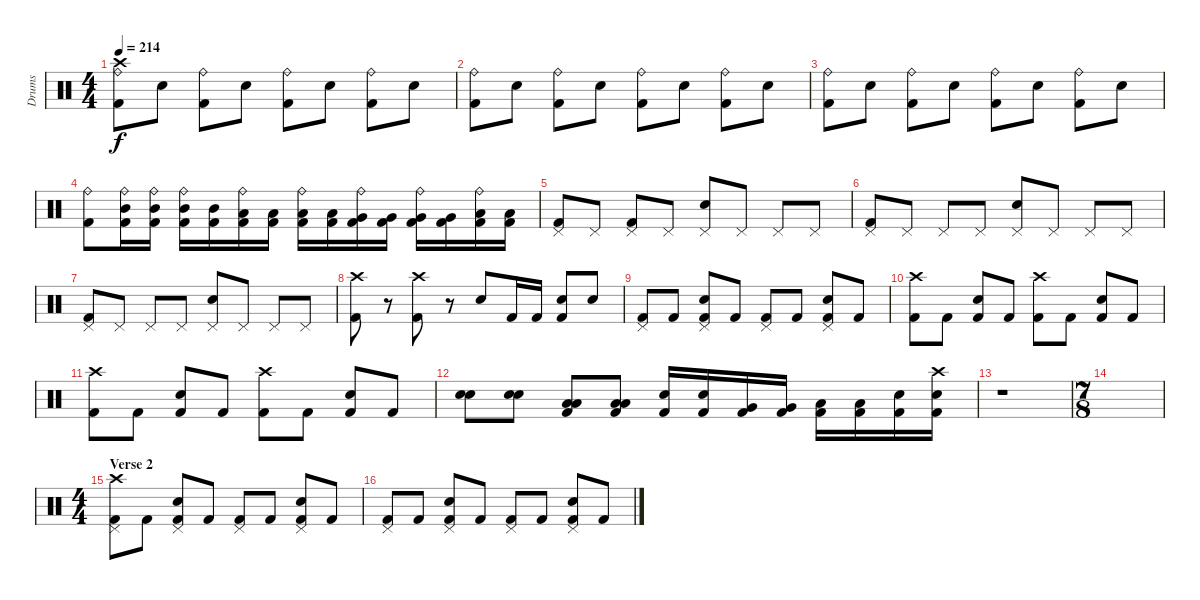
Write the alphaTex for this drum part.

\track ("Drums" "Drums") {instrument percussion}
\staff {score}
\articulation defaults
\ts (4 4)
\tempo 214
\clef neutral
\ks c
("Ride (bell)" "Crash high (hit)" "Kick (hit) 2").8{dy f} "Electric Snare (hit)".8 ("Ride (bell)" "Kick (hit) 2").8 "Electric Snare (hit)".8 ("Ride (bell)" "Kick (hit) 2").8 "Electric Snare (hit)".8 ("Ride (bell)" "Kick (hit) 2").8 "Electric Snare (hit)".8 |
("Ride (bell)" "Kick (hit) 2").8 "Electric Snare (hit)".8 ("Ride (bell)" "Kick (hit) 2").8 "Electric Snare (hit)".8 ("Ride (bell)" "Kick (hit) 2").8 "Electric Snare (hit)".8 ("Ride (bell)" "Kick (hit) 2").8 "Electric Snare (hit)".8 |
("Ride (bell)" "Kick (hit) 2").8 "Electric Snare (hit)".8 ("Ride (bell)" "Kick (hit) 2").8 "Electric Snare (hit)".8 ("Ride (bell)" "Kick (hit) 2").8 "Electric Snare (hit)".8 ("Ride (bell)" "Kick (hit) 2").8 "Electric Snare (hit)".8 |
("Ride (bell)" "Kick (hit) 2").8 ("Ride (bell)" "Mid Tom (hit)" "Kick (hit) 2").16 ("Ride (bell)" "Mid Tom (hit)" "Kick (hit) 2").16 ("Ride (bell)" "Mid Tom (hit)" "Kick (hit) 2").16 ("Mid Tom (hit)" "Kick (hit) 2").16 ("Ride (bell)" "Low Tom (hit)" "Kick (hit) 2").16 ("Low Tom (hit)" "Kick (hit) 2").16 ("Ride (bell)" "Low Tom (hit)" "Kick (hit) 2").16 ("Low Tom (hit)" "Kick (hit) 2").16 ("Ride (bell)" "Very Low Tom (hit)" "Kick (hit) 2").16 ("Very Low Tom (hit)" "Kick (hit) 2").16 ("Ride (bell)" "Very Low Tom (hit)" "Kick (hit) 2").16 ("Very Low Tom (hit)" "Kick (hit) 2").16 ("Ride (bell)" "Low Floor Tom (hit)" "Kick (hit) 2").16 ("Low Floor Tom (hit)" "Kick (hit) 2").16 |
("Pedal Hi-Hat (hit)" "Kick (hit) 2").8 "Pedal Hi-Hat (hit)".8 ("Pedal Hi-Hat (hit)" "Kick (hit) 2").8 "Pedal Hi-Hat (hit)".8 ("Pedal Hi-Hat (hit)" "Electric Snare (hit)").8 "Pedal Hi-Hat (hit)".8 "Pedal Hi-Hat (hit)".8 "Pedal Hi-Hat (hit)".8 |
("Pedal Hi-Hat (hit)" "Kick (hit) 2").8 "Pedal Hi-Hat (hit)".8 "Pedal Hi-Hat (hit)".8 "Pedal Hi-Hat (hit)".8 ("Pedal Hi-Hat (hit)" "Electric Snare (hit)").8 "Pedal Hi-Hat (hit)".8 "Pedal Hi-Hat (hit)".8 "Pedal Hi-Hat (hit)".8 |
("Pedal Hi-Hat (hit)" "Kick (hit) 2").8 "Pedal Hi-Hat (hit)".8 "Pedal Hi-Hat (hit)".8 "Pedal Hi-Hat (hit)".8 ("Pedal Hi-Hat (hit)" "Electric Snare (hit)").8 "Pedal Hi-Hat (hit)".8 "Pedal Hi-Hat (hit)".8 "Pedal Hi-Hat (hit)".8 |
("Crash high (hit)" "Kick (hit) 2").8 r.8 ("Crash high (hit)" "Kick (hit) 2").8 r.8 "Electric Snare (hit)".8 "Kick (hit) 2".16 "Kick (hit) 2".16 ("Electric Snare (hit)" "Kick (hit) 2").8 "Electric Snare (hit)".8 |
("Pedal Hi-Hat (hit)" "Kick (hit) 2").8 "Kick (hit) 2".8 ("Pedal Hi-Hat (hit)" "Electric Snare (hit)" "Kick (hit) 2").8 "Kick (hit) 2".8 ("Pedal Hi-Hat (hit)" "Kick (hit) 2").8 "Kick (hit) 2".8 ("Pedal Hi-Hat (hit)" "Electric Snare (hit)" "Kick (hit) 2").8 "Kick (hit) 2".8 |
("Crash high (hit)" "Kick (hit) 2").8 "Kick (hit) 2".8 ("Electric Snare (hit)" "Kick (hit) 2").8 "Kick (hit) 2".8 ("Crash high (hit)" "Kick (hit) 2").8 "Kick (hit) 2".8 ("Electric Snare (hit)" "Kick (hit) 2").8 "Kick (hit) 2".8 |
("Crash high (hit)" "Kick (hit) 2").8 "Kick (hit) 2".8 ("Electric Snare (hit)" "Kick (hit) 2").8 "Kick (hit) 2".8 ("Crash high (hit)" "Kick (hit) 2").8 "Kick (hit) 2".8 ("Electric Snare (hit)" "Kick (hit) 2").8 "Kick (hit) 2".8 |
("Electric Snare (hit)" "Electric Snare (hit)").8 ("Electric Snare (hit)" "Electric Snare (hit)").8 ("Low Floor Tom (hit)" "Low Floor Tom (hit)" "Kick (hit) 2").8 ("Low Floor Tom (hit)" "Low Floor Tom (hit)" "Kick (hit) 2").8 ("Electric Snare (hit)" "Kick (hit) 2").16 ("Electric Snare (hit)" "Kick (hit) 2").16 ("Very Low Tom (hit)" "Kick (hit) 2").16 ("Very Low Tom (hit)" "Kick (hit) 2").16 ("Low Floor Tom (hit)" "Kick (hit) 2").16 ("Low Floor Tom (hit)" "Kick (hit) 2").16 ("Electric Snare (hit)" "Kick (hit) 2").16 ("Crash high (hit)" "Electric Snare (hit)" "Kick (hit) 2").16 |
r.1 |
\ts (7 8)
|
\ts (4 4)
\section ("" "Verse 2")
("Pedal Hi-Hat (hit)" "Crash high (hit)" "Kick (hit) 2").8 "Kick (hit) 2".8 ("Pedal Hi-Hat (hit)" "Electric Snare (hit)" "Kick (hit) 2").8 "Kick (hit) 2".8 ("Pedal Hi-Hat (hit)" "Kick (hit) 2").8 "Kick (hit) 2".8 ("Pedal Hi-Hat (hit)" "Electric Snare (hit)" "Kick (hit) 2").8 "Kick (hit) 2".8 |
("Pedal Hi-Hat (hit)" "Kick (hit) 2").8 "Kick (hit) 2".8 ("Pedal Hi-Hat (hit)" "Electric Snare (hit)" "Kick (hit) 2").8 "Kick (hit) 2".8 ("Pedal Hi-Hat (hit)" "Kick (hit) 2").8 "Kick (hit) 2".8 ("Pedal Hi-Hat (hit)" "Electric Snare (hit)" "Kick (hit) 2").8 "Kick (hit) 2".8
